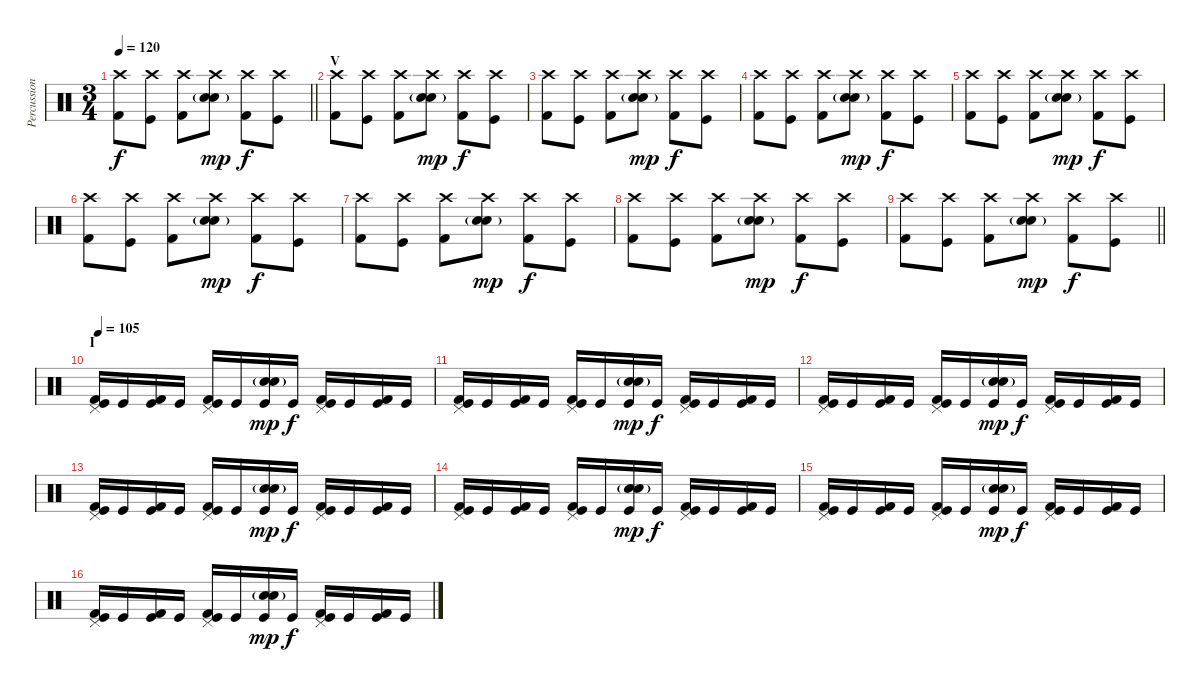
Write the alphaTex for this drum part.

\track ("Percussion" "Percussion") {instrument percussion}
\staff {score}
\articulation defaults
\ts (3 4)
\tempo 120
\clef neutral
\barLineRight lightlight
\ks c
("Crash high (hit)" "Kick (hit) 2").8{dy f} ("Crash high (hit)" "Kick (hit)").8 ("Crash high (hit)" "Kick (hit) 2").8 ("Crash high (hit)" "Electric Snare (hit)" "Snare (hit) 2"{g}).8{dy mp} ("Crash high (hit)" "Kick (hit) 2").8{dy f} ("Crash high (hit)" "Kick (hit)").8 |
\section ("" "V")
("Crash high (hit)" "Kick (hit) 2").8 ("Crash high (hit)" "Kick (hit)").8 ("Crash high (hit)" "Kick (hit) 2").8 ("Crash high (hit)" "Electric Snare (hit)" "Snare (hit) 2"{g}).8{dy mp} ("Crash high (hit)" "Kick (hit) 2").8{dy f} ("Crash high (hit)" "Kick (hit)").8 |
("Crash high (hit)" "Kick (hit) 2").8 ("Crash high (hit)" "Kick (hit)").8 ("Crash high (hit)" "Kick (hit) 2").8 ("Crash high (hit)" "Electric Snare (hit)" "Snare (hit) 2"{g}).8{dy mp} ("Crash high (hit)" "Kick (hit) 2").8{dy f} ("Crash high (hit)" "Kick (hit)").8 |
("Crash high (hit)" "Kick (hit) 2").8 ("Crash high (hit)" "Kick (hit)").8 ("Crash high (hit)" "Kick (hit) 2").8 ("Crash high (hit)" "Electric Snare (hit)" "Snare (hit) 2"{g}).8{dy mp} ("Crash high (hit)" "Kick (hit) 2").8{dy f} ("Crash high (hit)" "Kick (hit)").8 |
("Crash high (hit)" "Kick (hit) 2").8 ("Crash high (hit)" "Kick (hit)").8 ("Crash high (hit)" "Kick (hit) 2").8 ("Crash high (hit)" "Electric Snare (hit)" "Snare (hit) 2"{g}).8{dy mp} ("Crash high (hit)" "Kick (hit) 2").8{dy f} ("Crash high (hit)" "Kick (hit)").8 |
("Crash high (hit)" "Kick (hit) 2").8 ("Crash high (hit)" "Kick (hit)").8 ("Crash high (hit)" "Kick (hit) 2").8 ("Crash high (hit)" "Electric Snare (hit)" "Snare (hit) 2"{g}).8{dy mp} ("Crash high (hit)" "Kick (hit) 2").8{dy f} ("Crash high (hit)" "Kick (hit)").8 |
("Crash high (hit)" "Kick (hit) 2").8 ("Crash high (hit)" "Kick (hit)").8 ("Crash high (hit)" "Kick (hit) 2").8 ("Crash high (hit)" "Electric Snare (hit)" "Snare (hit) 2"{g}).8{dy mp} ("Crash high (hit)" "Kick (hit) 2").8{dy f} ("Crash high (hit)" "Kick (hit)").8 |
("Crash high (hit)" "Kick (hit) 2").8 ("Crash high (hit)" "Kick (hit)").8 ("Crash high (hit)" "Kick (hit) 2").8 ("Crash high (hit)" "Electric Snare (hit)" "Snare (hit) 2"{g}).8{dy mp} ("Crash high (hit)" "Kick (hit) 2").8{dy f} ("Crash high (hit)" "Kick (hit)").8 |
\barLineRight lightlight
("Crash high (hit)" "Kick (hit) 2").8 ("Crash high (hit)" "Kick (hit)").8 ("Crash high (hit)" "Kick (hit) 2").8 ("Crash high (hit)" "Electric Snare (hit)" "Snare (hit) 2"{g}).8{dy mp} ("Crash high (hit)" "Kick (hit) 2").8{dy f} ("Crash high (hit)" "Kick (hit)").8 |
\section ("" "I")
\tempo 105
("Kick (hit) 2" "Kick (hit)" "Pedal Hi-Hat (hit)").16 "Kick (hit)".16 ("Kick (hit) 2" "Kick (hit)").16 "Kick (hit)".16 ("Kick (hit) 2" "Kick (hit)" "Pedal Hi-Hat (hit)").16 "Kick (hit)".16 ("Electric Snare (hit)" "Snare (hit) 2"{g} "Kick (hit)").16{dy mp} "Kick (hit)".16{dy f} ("Kick (hit) 2" "Kick (hit)" "Pedal Hi-Hat (hit)").16 "Kick (hit)".16 ("Kick (hit) 2" "Kick (hit)").16 "Kick (hit)".16 |
("Kick (hit) 2" "Kick (hit)" "Pedal Hi-Hat (hit)").16 "Kick (hit)".16 ("Kick (hit) 2" "Kick (hit)").16 "Kick (hit)".16 ("Kick (hit) 2" "Kick (hit)" "Pedal Hi-Hat (hit)").16 "Kick (hit)".16 ("Electric Snare (hit)" "Snare (hit) 2"{g} "Kick (hit)").16{dy mp} "Kick (hit)".16{dy f} ("Kick (hit) 2" "Kick (hit)" "Pedal Hi-Hat (hit)").16 "Kick (hit)".16 ("Kick (hit) 2" "Kick (hit)").16 "Kick (hit)".16 |
("Kick (hit) 2" "Kick (hit)" "Pedal Hi-Hat (hit)").16 "Kick (hit)".16 ("Kick (hit) 2" "Kick (hit)").16 "Kick (hit)".16 ("Kick (hit) 2" "Kick (hit)" "Pedal Hi-Hat (hit)").16 "Kick (hit)".16 ("Electric Snare (hit)" "Snare (hit) 2"{g} "Kick (hit)").16{dy mp} "Kick (hit)".16{dy f} ("Kick (hit) 2" "Kick (hit)" "Pedal Hi-Hat (hit)").16 "Kick (hit)".16 ("Kick (hit) 2" "Kick (hit)").16 "Kick (hit)".16 |
("Kick (hit) 2" "Kick (hit)" "Pedal Hi-Hat (hit)").16 "Kick (hit)".16 ("Kick (hit) 2" "Kick (hit)").16 "Kick (hit)".16 ("Kick (hit) 2" "Kick (hit)" "Pedal Hi-Hat (hit)").16 "Kick (hit)".16 ("Electric Snare (hit)" "Snare (hit) 2"{g} "Kick (hit)").16{dy mp} "Kick (hit)".16{dy f} ("Kick (hit) 2" "Kick (hit)" "Pedal Hi-Hat (hit)").16 "Kick (hit)".16 ("Kick (hit) 2" "Kick (hit)").16 "Kick (hit)".16 |
("Kick (hit) 2" "Kick (hit)" "Pedal Hi-Hat (hit)").16 "Kick (hit)".16 ("Kick (hit) 2" "Kick (hit)").16 "Kick (hit)".16 ("Kick (hit) 2" "Kick (hit)" "Pedal Hi-Hat (hit)").16 "Kick (hit)".16 ("Electric Snare (hit)" "Snare (hit) 2"{g} "Kick (hit)").16{dy mp} "Kick (hit)".16{dy f} ("Kick (hit) 2" "Kick (hit)" "Pedal Hi-Hat (hit)").16 "Kick (hit)".16 ("Kick (hit) 2" "Kick (hit)").16 "Kick (hit)".16 |
("Kick (hit) 2" "Kick (hit)" "Pedal Hi-Hat (hit)").16 "Kick (hit)".16 ("Kick (hit) 2" "Kick (hit)").16 "Kick (hit)".16 ("Kick (hit) 2" "Kick (hit)" "Pedal Hi-Hat (hit)").16 "Kick (hit)".16 ("Electric Snare (hit)" "Snare (hit) 2"{g} "Kick (hit)").16{dy mp} "Kick (hit)".16{dy f} ("Kick (hit) 2" "Kick (hit)" "Pedal Hi-Hat (hit)").16 "Kick (hit)".16 ("Kick (hit) 2" "Kick (hit)").16 "Kick (hit)".16 |
("Kick (hit) 2" "Kick (hit)" "Pedal Hi-Hat (hit)").16 "Kick (hit)".16 ("Kick (hit) 2" "Kick (hit)").16 "Kick (hit)".16 ("Kick (hit) 2" "Kick (hit)" "Pedal Hi-Hat (hit)").16 "Kick (hit)".16 ("Electric Snare (hit)" "Snare (hit) 2"{g} "Kick (hit)").16{dy mp} "Kick (hit)".16{dy f} ("Kick (hit) 2" "Kick (hit)" "Pedal Hi-Hat (hit)").16 "Kick (hit)".16 ("Kick (hit) 2" "Kick (hit)").16 "Kick (hit)".16
